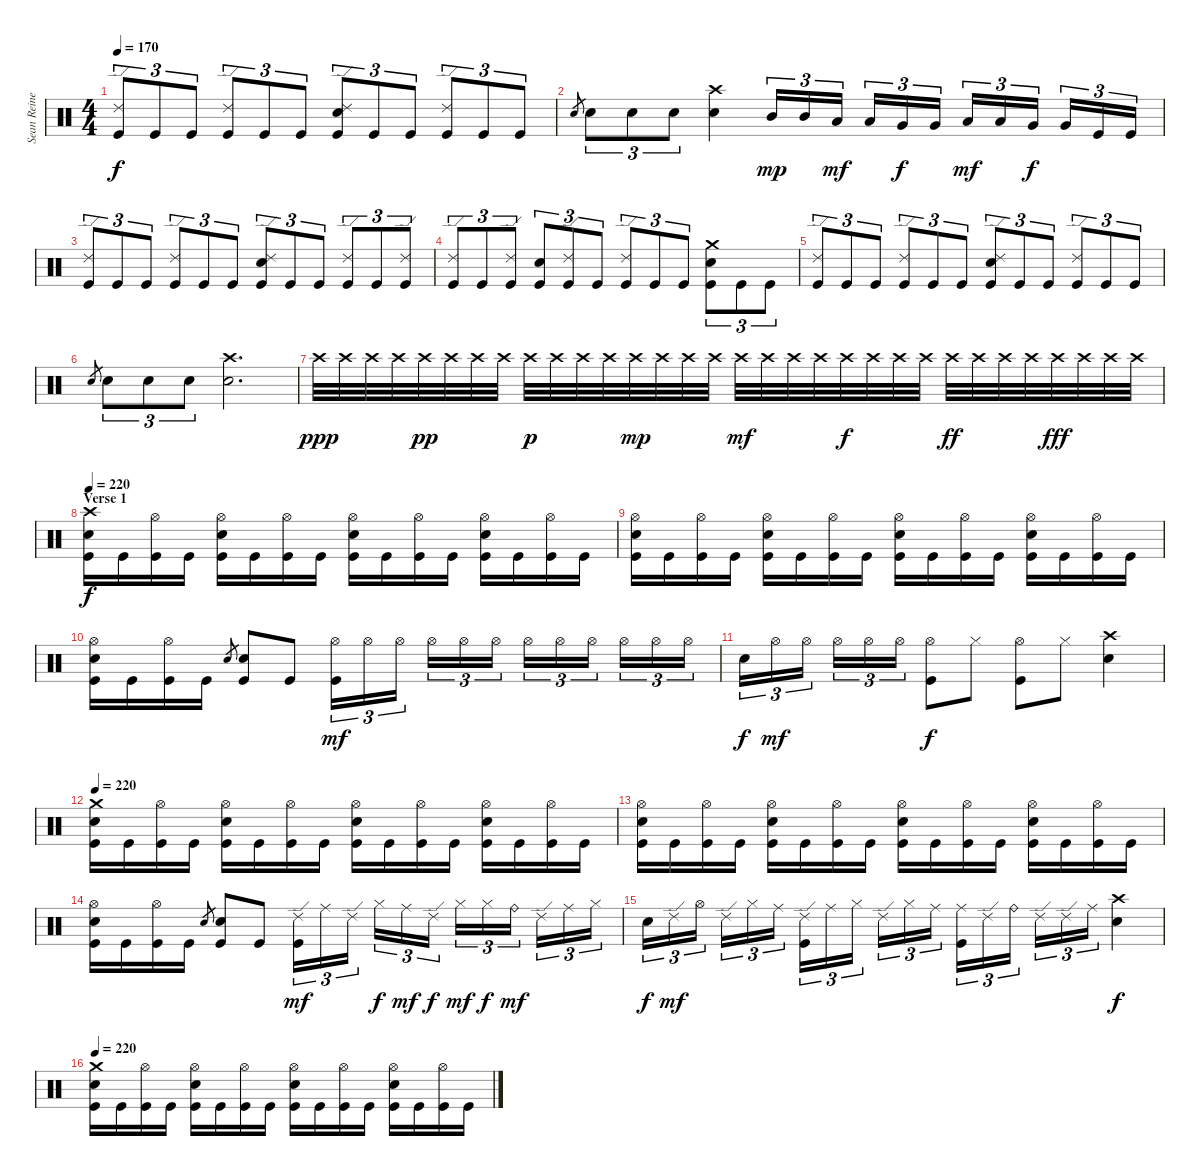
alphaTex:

\track ("Sean Reinert " "Sean Reine") {instrument percussion}
\staff {score}
\articulation defaults
\ts (4 4)
\tempo 170
\clef neutral
\ks c
("Ride (edge) 2" "Kick (hit)").8{tu (3 2) dy f} "Kick (hit)".8{tu (3 2)} "Kick (hit)".8{tu (3 2)} ("Ride (edge) 2" "Kick (hit)").8{tu (3 2)} "Kick (hit)".8{tu (3 2)} "Kick (hit)".8{tu (3 2)} ("Ride (edge) 2" "Electric Snare (hit)" "Kick (hit)").8{tu (3 2)} "Kick (hit)".8{tu (3 2)} "Kick (hit)".8{tu (3 2)} ("Ride (edge) 2" "Kick (hit)").8{tu (3 2)} "Kick (hit)".8{tu (3 2)} "Kick (hit)".8{tu (3 2)} |
"Electric Snare (hit)".8{gr} "Electric Snare (hit)".8{tu (3 2)} "Electric Snare (hit)".8{tu (3 2)} "Electric Snare (hit)".8{tu (3 2)} ("Crash high (hit)" "Electric Snare (hit)").4 "Mid Tom (hit)".16{tu (3 2) dy mp} "Mid Tom (hit)".16{tu (3 2)} "Low Tom (hit)".16{tu (3 2) dy mf} "Low Tom (hit)".16{tu (3 2)} "Very Low Tom (hit)".16{tu (3 2) dy f} "Very Low Tom (hit)".16{tu (3 2)} "Low Tom (hit)".16{tu (3 2) dy mf} "Low Tom (hit)".16{tu (3 2)} "Very Low Tom (hit)".16{tu (3 2) dy f} "Very Low Tom (hit)".16{tu (3 2)} "Kick (hit)".16{tu (3 2)} "Kick (hit)".16{tu (3 2)} |
("Ride (edge) 2" "Kick (hit)").8{tu (3 2)} "Kick (hit)".8{tu (3 2)} "Kick (hit)".8{tu (3 2)} ("Ride (edge) 2" "Kick (hit)").8{tu (3 2)} "Kick (hit)".8{tu (3 2)} "Kick (hit)".8{tu (3 2)} ("Ride (edge) 2" "Electric Snare (hit)" "Kick (hit)").8{tu (3 2)} "Kick (hit)".8{tu (3 2)} "Kick (hit)".8{tu (3 2)} ("Ride (edge) 2" "Kick (hit)").8{tu (3 2)} "Kick (hit)".8{tu (3 2)} ("Ride (edge) 2" "Kick (hit)").8{tu (3 2)} |
("Ride (edge) 2" "Kick (hit)").8{tu (3 2)} "Kick (hit)".8{tu (3 2)} ("Ride (edge) 2" "Kick (hit)").8{tu (3 2)} ("Electric Snare (hit)" "Kick (hit)").8{tu (3 2)} ("Ride (edge) 2" "Kick (hit)").8{tu (3 2)} "Kick (hit)".8{tu (3 2)} ("Ride (edge) 2" "Kick (hit)").8{tu (3 2)} "Kick (hit)".8{tu (3 2)} "Kick (hit)".8{tu (3 2)} ("Crash medium (hit)" "Electric Snare (hit)" "Kick (hit)").8{tu (3 2)} "Kick (hit)".8{tu (3 2)} "Kick (hit)".8{tu (3 2)} |
("Ride (edge) 2" "Kick (hit)").8{tu (3 2)} "Kick (hit)".8{tu (3 2)} "Kick (hit)".8{tu (3 2)} ("Ride (edge) 2" "Kick (hit)").8{tu (3 2)} "Kick (hit)".8{tu (3 2)} "Kick (hit)".8{tu (3 2)} ("Ride (edge) 2" "Electric Snare (hit)" "Kick (hit)").8{tu (3 2)} "Kick (hit)".8{tu (3 2)} "Kick (hit)".8{tu (3 2)} ("Ride (edge) 2" "Kick (hit)").8{tu (3 2)} "Kick (hit)".8{tu (3 2)} "Kick (hit)".8{tu (3 2)} |
"Electric Snare (hit)".8{gr} "Electric Snare (hit)".8{tu (3 2)} "Electric Snare (hit)".8{tu (3 2)} "Electric Snare (hit)".8{tu (3 2)} ("Crash high (hit)" "Electric Snare (hit)").2{d} |
"Crash high (hit)".32{dy ppp} "Crash high (hit)".32 "Crash high (hit)".32 "Crash high (hit)".32 "Crash high (hit)".32{dy pp} "Crash high (hit)".32 "Crash high (hit)".32 "Crash high (hit)".32 "Crash high (hit)".32{dy p} "Crash high (hit)".32 "Crash high (hit)".32 "Crash high (hit)".32 "Crash high (hit)".32{dy mp} "Crash high (hit)".32 "Crash high (hit)".32 "Crash high (hit)".32 "Crash high (hit)".32{dy mf} "Crash high (hit)".32 "Crash high (hit)".32 "Crash high (hit)".32 "Crash high (hit)".32{dy f} "Crash high (hit)".32 "Crash high (hit)".32 "Crash high (hit)".32 "Crash high (hit)".32{dy ff} "Crash high (hit)".32 "Crash high (hit)".32 "Crash high (hit)".32 "Crash high (hit)".32{dy fff} "Crash high (hit)".32 "Crash high (hit)".32 "Crash high (hit)".32 |
\section ("" "Verse 1")
\tempo 220
("Crash high (hit)" "Electric Snare (hit)" "Kick (hit)").16{dy f} "Kick (hit)".16 ("Hi-Hat (open)" "Kick (hit)").16 "Kick (hit)".16 ("Hi-Hat (open)" "Electric Snare (hit)" "Kick (hit)").16 "Kick (hit)".16 ("Hi-Hat (open)" "Kick (hit)").16 "Kick (hit)".16 ("Hi-Hat (open)" "Electric Snare (hit)" "Kick (hit)").16 "Kick (hit)".16 ("Hi-Hat (open)" "Kick (hit)").16 "Kick (hit)".16 ("Hi-Hat (open)" "Electric Snare (hit)" "Kick (hit)").16 "Kick (hit)".16 ("Hi-Hat (open)" "Kick (hit)").16 "Kick (hit)".16 |
("Hi-Hat (open)" "Electric Snare (hit)" "Kick (hit)").16 "Kick (hit)".16 ("Hi-Hat (open)" "Kick (hit)").16 "Kick (hit)".16 ("Hi-Hat (open)" "Electric Snare (hit)" "Kick (hit)").16 "Kick (hit)".16 ("Hi-Hat (open)" "Kick (hit)").16 "Kick (hit)".16 ("Hi-Hat (open)" "Electric Snare (hit)" "Kick (hit)").16 "Kick (hit)".16 ("Hi-Hat (open)" "Kick (hit)").16 "Kick (hit)".16 ("Hi-Hat (open)" "Electric Snare (hit)" "Kick (hit)").16 "Kick (hit)".16 ("Hi-Hat (open)" "Kick (hit)").16 "Kick (hit)".16 |
("Hi-Hat (open)" "Electric Snare (hit)" "Kick (hit)").16 "Kick (hit)".16 ("Hi-Hat (open)" "Kick (hit)").16 "Kick (hit)".16 "Electric Snare (hit)".8{gr} ("Electric Snare (hit)" "Kick (hit)").8 "Kick (hit)".8 ("Hi-Hat (open)" "Kick (hit)").16{tu (3 2) dy mf} "Hi-Hat (open)".16{tu (3 2)} "Hi-Hat (open)".16{tu (3 2)} "Hi-Hat (open)".16{tu (3 2)} "Hi-Hat (open)".16{tu (3 2)} "Hi-Hat (open)".16{tu (3 2)} "Hi-Hat (open)".16{tu (3 2)} "Hi-Hat (open)".16{tu (3 2)} "Hi-Hat (open)".16{tu (3 2)} "Hi-Hat (open)".16{tu (3 2)} "Hi-Hat (open)".16{tu (3 2)} "Hi-Hat (open)".16{tu (3 2)} |
"Electric Snare (hit)".16{tu (3 2) dy f} "Hi-Hat (open)".16{tu (3 2) dy mf} "Hi-Hat (open)".16{tu (3 2)} "Hi-Hat (open)".16{tu (3 2)} "Hi-Hat (open)".16{tu (3 2)} "Hi-Hat (open)".16{tu (3 2)} ("Hi-Hat (open)" "Kick (hit)").8{dy f} "Hi-Hat (closed)".8 ("Hi-Hat (open)" "Kick (hit)").8 "Hi-Hat (closed)".8 ("Crash high (hit)" "Electric Snare (hit)").4 |
\tempo 220
("Crash medium (hit)" "Electric Snare (hit)" "Kick (hit)").16 "Kick (hit)".16 ("Hi-Hat (open)" "Kick (hit)").16 "Kick (hit)".16 ("Hi-Hat (open)" "Electric Snare (hit)" "Kick (hit)").16 "Kick (hit)".16 ("Hi-Hat (open)" "Kick (hit)").16 "Kick (hit)".16 ("Hi-Hat (open)" "Electric Snare (hit)" "Kick (hit)").16 "Kick (hit)".16 ("Hi-Hat (open)" "Kick (hit)").16 "Kick (hit)".16 ("Hi-Hat (open)" "Electric Snare (hit)" "Kick (hit)").16 "Kick (hit)".16 ("Hi-Hat (open)" "Kick (hit)").16 "Kick (hit)".16 |
("Hi-Hat (open)" "Electric Snare (hit)" "Kick (hit)").16 "Kick (hit)".16 ("Hi-Hat (open)" "Kick (hit)").16 "Kick (hit)".16 ("Hi-Hat (open)" "Electric Snare (hit)" "Kick (hit)").16 "Kick (hit)".16 ("Hi-Hat (open)" "Kick (hit)").16 "Kick (hit)".16 ("Hi-Hat (open)" "Electric Snare (hit)" "Kick (hit)").16 "Kick (hit)".16 ("Hi-Hat (open)" "Kick (hit)").16 "Kick (hit)".16 ("Hi-Hat (open)" "Electric Snare (hit)" "Kick (hit)").16 "Kick (hit)".16 ("Hi-Hat (open)" "Kick (hit)").16 "Kick (hit)".16 |
("Hi-Hat (open)" "Electric Snare (hit)" "Kick (hit)").16 "Kick (hit)".16 ("Hi-Hat (open)" "Kick (hit)").16 "Kick (hit)".16 "Electric Snare (hit)".8{gr} ("Electric Snare (hit)" "Kick (hit)").8 "Kick (hit)".8 ("Ride (edge) 2" "Kick (hit)").16{tu (3 2) dy mf} "Ride (middle)".16{tu (3 2)} "Ride (edge) 2".16{tu (3 2)} "Hi-Hat (closed)".16{tu (3 2) dy f} "Ride (middle)".16{tu (3 2) dy mf} "Ride (edge) 2".16{tu (3 2) dy f} "Hi-Hat (closed)".16{tu (3 2) dy mf} "Hi-Hat (closed)".16{tu (3 2) dy f} "Ride (bell)".16{tu (3 2) dy mf} "Ride (edge) 2".16{tu (3 2)} "Ride (middle)".16{tu (3 2)} "Hi-Hat (closed)".16{tu (3 2)} |
"Electric Snare (hit)".16{tu (3 2) dy f} "Ride (edge) 2".16{tu (3 2) dy mf} "Hi-Hat (open)".16{tu (3 2)} "Ride (edge) 2".16{tu (3 2)} "Hi-Hat (closed)".16{tu (3 2)} "Ride (middle)".16{tu (3 2)} ("Ride (edge) 2" "Kick (hit)").16{tu (3 2)} "Ride (middle)".16{tu (3 2)} "Hi-Hat (closed)".16{tu (3 2)} "Ride (edge) 2".16{tu (3 2)} "Hi-Hat (closed)".16{tu (3 2)} "Ride (middle)".16{tu (3 2)} ("Ride (middle)" "Kick (hit)").16{tu (3 2)} "Ride (edge) 2".16{tu (3 2)} "Ride (bell)".16{tu (3 2)} "Ride (edge) 2".16{tu (3 2)} "Ride (edge) 2".16{tu (3 2)} "Ride (middle)".16{tu (3 2)} ("Crash high (hit)" "Electric Snare (hit)").4{dy f} |
\tempo 220
("Crash medium (hit)" "Electric Snare (hit)" "Kick (hit)").16 "Kick (hit)".16 ("Hi-Hat (open)" "Kick (hit)").16 "Kick (hit)".16 ("Hi-Hat (open)" "Electric Snare (hit)" "Kick (hit)").16 "Kick (hit)".16 ("Hi-Hat (open)" "Kick (hit)").16 "Kick (hit)".16 ("Hi-Hat (open)" "Electric Snare (hit)" "Kick (hit)").16 "Kick (hit)".16 ("Hi-Hat (open)" "Kick (hit)").16 "Kick (hit)".16 ("Hi-Hat (open)" "Electric Snare (hit)" "Kick (hit)").16 "Kick (hit)".16 ("Hi-Hat (open)" "Kick (hit)").16 "Kick (hit)".16
